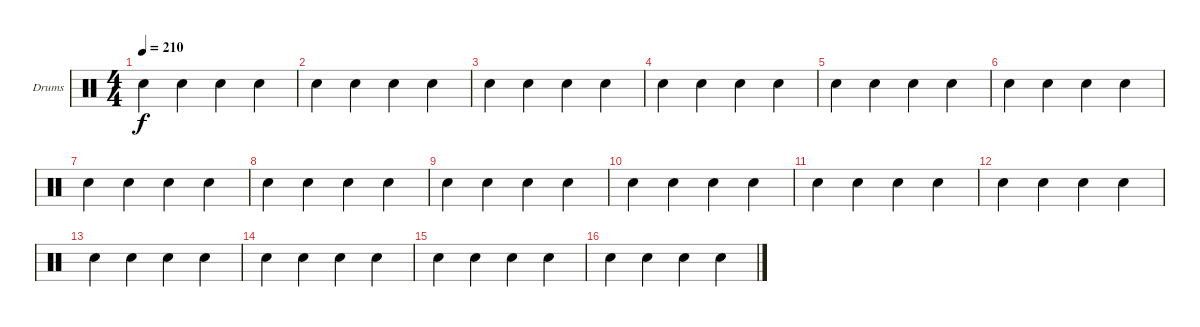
\defaultSystemsLayout 4
\bracketExtendMode groupsimilarinstruments
\firstSystemTrackNameOrientation horizontal
\otherSystemsTrackNameOrientation horizontal
\track ("Drumkit" "Drums") {instrument percussion}
\staff {score}
\articulation defaults
\ts (4 4)
\tempo 210
\clef neutral
\ks c "Snare (hit) 2".4{dy f} "Snare (hit) 2".4 "Snare (hit) 2".4 "Snare (hit) 2".4
|
"Snare (hit) 2".4 "Snare (hit) 2".4 "Snare (hit) 2".4 "Snare (hit) 2".4 |
"Snare (hit) 2".4 "Snare (hit) 2".4 "Snare (hit) 2".4 "Snare (hit) 2".4 |
"Snare (hit) 2".4 "Snare (hit) 2".4 "Snare (hit) 2".4 "Snare (hit) 2".4 |
"Snare (hit) 2".4 "Snare (hit) 2".4 "Snare (hit) 2".4 "Snare (hit) 2".4 |
"Snare (hit) 2".4 "Snare (hit) 2".4 "Snare (hit) 2".4 "Snare (hit) 2".4 |
"Snare (hit) 2".4 "Snare (hit) 2".4 "Snare (hit) 2".4 "Snare (hit) 2".4 |
"Snare (hit) 2".4 "Snare (hit) 2".4 "Snare (hit) 2".4 "Snare (hit) 2".4 |
"Snare (hit) 2".4 "Snare (hit) 2".4 "Snare (hit) 2".4 "Snare (hit) 2".4 |
"Snare (hit) 2".4 "Snare (hit) 2".4 "Snare (hit) 2".4 "Snare (hit) 2".4 |
"Snare (hit) 2".4 "Snare (hit) 2".4 "Snare (hit) 2".4 "Snare (hit) 2".4 |
"Snare (hit) 2".4 "Snare (hit) 2".4 "Snare (hit) 2".4 "Snare (hit) 2".4 |
"Snare (hit) 2".4 "Snare (hit) 2".4 "Snare (hit) 2".4 "Snare (hit) 2".4 |
"Snare (hit) 2".4 "Snare (hit) 2".4 "Snare (hit) 2".4 "Snare (hit) 2".4 |
"Snare (hit) 2".4 "Snare (hit) 2".4 "Snare (hit) 2".4 "Snare (hit) 2".4 |
"Snare (hit) 2".4 "Snare (hit) 2".4 "Snare (hit) 2".4 "Snare (hit) 2".4
